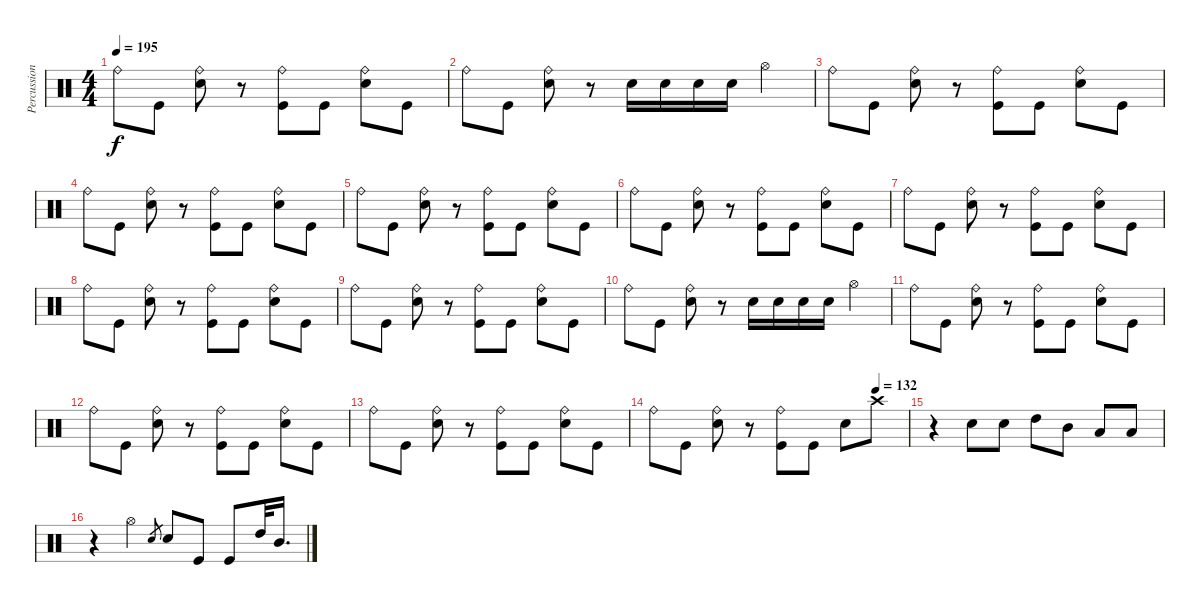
\track ("Percussion" "Percussion") {instrument percussion}
\staff {score}
\articulation defaults
\ts (4 4)
\tempo 195
\clef neutral
\ks c "Ride (bell)".8{dy f} "Kick (hit)".8
("Ride (bell)" "Electric Snare (hit)").8 r.8 ("Ride (bell)" "Kick (hit)").8 "Kick (hit)".8 ("Ride (bell)" "Electric Snare (hit)").8 "Kick (hit)".8 |
"Ride (bell)".8 "Kick (hit)".8 ("Ride (bell)" "Electric Snare (hit)").8 r.8 "Electric Snare (hit)".16 "Electric Snare (hit)".16 "Electric Snare (hit)".16 "Electric Snare (hit)".16 "Hi-Hat (open)".4 |
"Ride (bell)".8 "Kick (hit)".8 ("Ride (bell)" "Electric Snare (hit)").8 r.8 ("Ride (bell)" "Kick (hit)").8 "Kick (hit)".8 ("Ride (bell)" "Electric Snare (hit)").8 "Kick (hit)".8 |
"Ride (bell)".8 "Kick (hit)".8 ("Ride (bell)" "Electric Snare (hit)").8 r.8 ("Ride (bell)" "Kick (hit)").8 "Kick (hit)".8 ("Ride (bell)" "Electric Snare (hit)").8 "Kick (hit)".8 |
"Ride (bell)".8 "Kick (hit)".8 ("Ride (bell)" "Electric Snare (hit)").8 r.8 ("Ride (bell)" "Kick (hit)").8 "Kick (hit)".8 ("Ride (bell)" "Electric Snare (hit)").8 "Kick (hit)".8 |
"Ride (bell)".8 "Kick (hit)".8 ("Ride (bell)" "Electric Snare (hit)").8 r.8 ("Ride (bell)" "Kick (hit)").8 "Kick (hit)".8 ("Ride (bell)" "Electric Snare (hit)").8 "Kick (hit)".8 |
"Ride (bell)".8 "Kick (hit)".8 ("Ride (bell)" "Electric Snare (hit)").8 r.8 ("Ride (bell)" "Kick (hit)").8 "Kick (hit)".8 ("Ride (bell)" "Electric Snare (hit)").8 "Kick (hit)".8 |
"Ride (bell)".8 "Kick (hit)".8 ("Ride (bell)" "Electric Snare (hit)").8 r.8 ("Ride (bell)" "Kick (hit)").8 "Kick (hit)".8 ("Ride (bell)" "Electric Snare (hit)").8 "Kick (hit)".8 |
"Ride (bell)".8 "Kick (hit)".8 ("Ride (bell)" "Electric Snare (hit)").8 r.8 ("Ride (bell)" "Kick (hit)").8 "Kick (hit)".8 ("Ride (bell)" "Electric Snare (hit)").8 "Kick (hit)".8 |
"Ride (bell)".8 "Kick (hit)".8 ("Ride (bell)" "Electric Snare (hit)").8 r.8 "Electric Snare (hit)".16 "Electric Snare (hit)".16 "Electric Snare (hit)".16 "Electric Snare (hit)".16 "Hi-Hat (open)".4 |
"Ride (bell)".8 "Kick (hit)".8 ("Ride (bell)" "Electric Snare (hit)").8 r.8 ("Ride (bell)" "Kick (hit)").8 "Kick (hit)".8 ("Ride (bell)" "Electric Snare (hit)").8 "Kick (hit)".8 |
"Ride (bell)".8 "Kick (hit)".8 ("Ride (bell)" "Electric Snare (hit)").8 r.8 ("Ride (bell)" "Kick (hit)").8 "Kick (hit)".8 ("Ride (bell)" "Electric Snare (hit)").8 "Kick (hit)".8 |
"Ride (bell)".8 "Kick (hit)".8 ("Ride (bell)" "Electric Snare (hit)").8 r.8 ("Ride (bell)" "Kick (hit)").8 "Kick (hit)".8 ("Ride (bell)" "Electric Snare (hit)").8 "Kick (hit)".8 |
\tempo (132 0.875)
"Ride (bell)".8 "Kick (hit)".8 ("Ride (bell)" "Electric Snare (hit)").8 r.8 ("Ride (bell)" "Kick (hit)").8 "Kick (hit)".8 "Electric Snare (hit)".8 "Crash high (hit)".8 |
r.4 "Electric Snare (hit)".8 "Electric Snare (hit)".8 "High Tom (hit)".8 "Mid Tom (hit)".8 "Low Floor Tom (hit)".8 "Low Floor Tom (hit)".8 |
r.4 "Hi-Hat (open)".4 "Electric Snare (hit)".8{gr} "Electric Snare (hit)".8 "Kick (hit)".8 "Kick (hit)".8 "High Tom (hit)".32 "Mid Tom (hit)".16{d}
